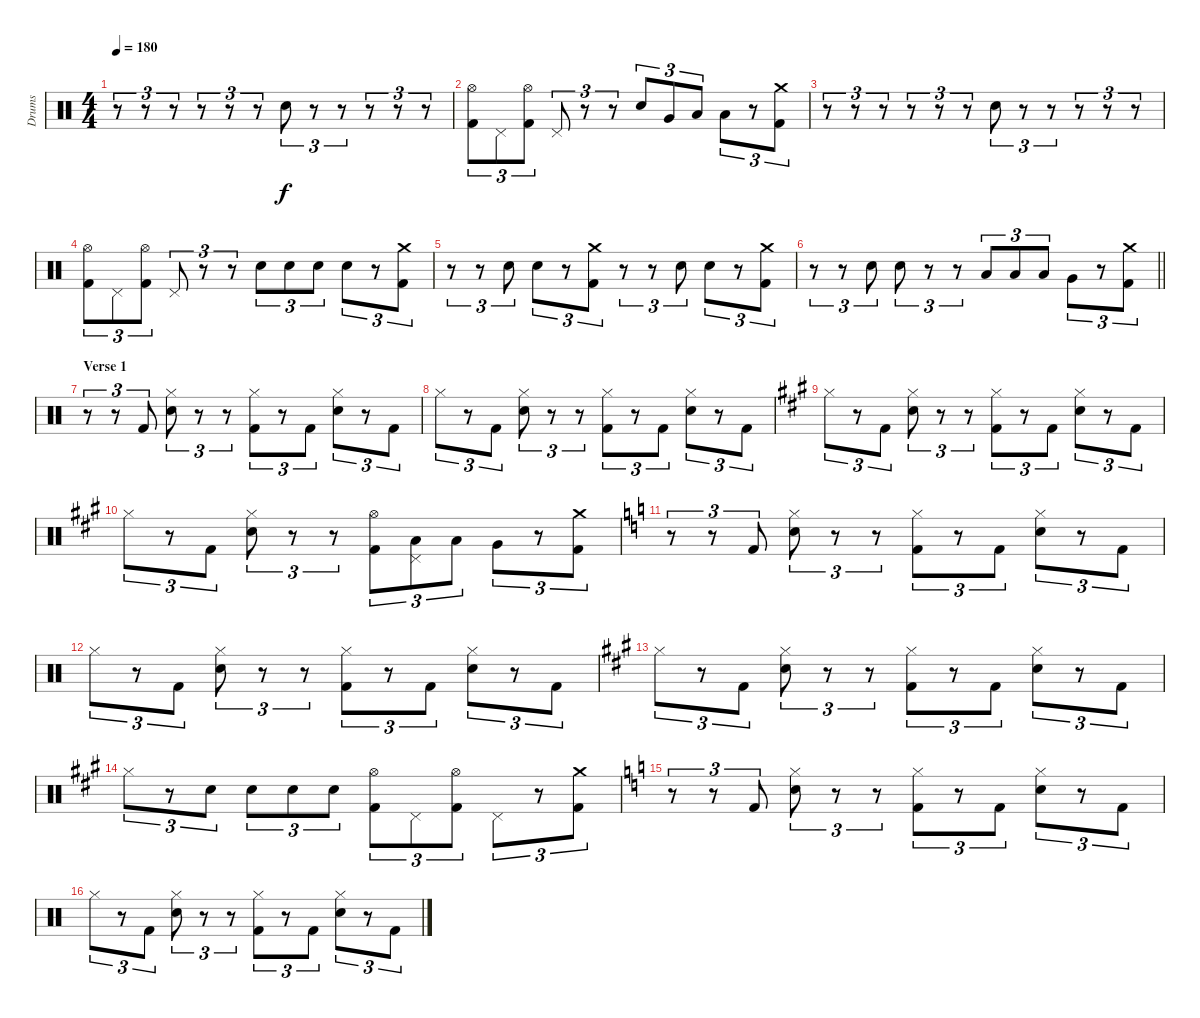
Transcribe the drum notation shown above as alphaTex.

\track ("Drums" "Drums") {instrument percussion}
\staff {score}
\articulation defaults
\ts (4 4)
\tempo 180
\clef neutral
\ks c
r.8{tu (3 2) dy f} r.8{tu (3 2)} r.8{tu (3 2)} r.8{tu (3 2)} r.8{tu (3 2)} r.8{tu (3 2)} "Snare (hit) 2".8{tu (3 2)} r.8{tu (3 2)} r.8{tu (3 2)} r.8{tu (3 2)} r.8{tu (3 2)} r.8{tu (3 2)} |
("Hi-Hat (open)" "Kick (hit) 2").8{tu (3 2)} "Pedal Hi-Hat (hit)".8{tu (3 2)} ("Hi-Hat (open)" "Kick (hit) 2").8{tu (3 2)} "Pedal Hi-Hat (hit)".8{tu (3 2)} r.8{tu (3 2)} r.8{tu (3 2)} "Snare (hit) 2".8{tu (3 2)} "Very Low Tom (hit)".8{tu (3 2)} "Low Tom (hit)".8{tu (3 2)} "Low Floor Tom (hit)".8{tu (3 2)} r.8{tu (3 2)} ("Crash medium (hit)" "Kick (hit) 2").8{tu (3 2)} |
r.8{tu (3 2)} r.8{tu (3 2)} r.8{tu (3 2)} r.8{tu (3 2)} r.8{tu (3 2)} r.8{tu (3 2)} "Snare (hit) 2".8{tu (3 2)} r.8{tu (3 2)} r.8{tu (3 2)} r.8{tu (3 2)} r.8{tu (3 2)} r.8{tu (3 2)} |
("Hi-Hat (open)" "Kick (hit) 2").8{tu (3 2)} "Pedal Hi-Hat (hit)".8{tu (3 2)} ("Hi-Hat (open)" "Kick (hit) 2").8{tu (3 2)} "Pedal Hi-Hat (hit)".8{tu (3 2)} r.8{tu (3 2)} r.8{tu (3 2)} "Snare (hit) 2".8{tu (3 2)} "Snare (hit) 2".8{tu (3 2)} "Snare (hit) 2".8{tu (3 2)} "Snare (hit) 2".8{tu (3 2)} r.8{tu (3 2)} ("Crash medium (hit)" "Kick (hit) 2").8{tu (3 2)} |
r.8{tu (3 2)} r.8{tu (3 2)} "Snare (hit) 2".8{tu (3 2)} "Snare (hit) 2".8{tu (3 2)} r.8{tu (3 2)} ("Crash medium (hit)" "Kick (hit) 2").8{tu (3 2)} r.8{tu (3 2)} r.8{tu (3 2)} "Snare (hit) 2".8{tu (3 2)} "Snare (hit) 2".8{tu (3 2)} r.8{tu (3 2)} ("Crash medium (hit)" "Kick (hit) 2").8{tu (3 2)} |
\barLineRight lightlight
r.8{tu (3 2)} r.8{tu (3 2)} "Snare (hit) 2".8{tu (3 2)} "Snare (hit) 2".8{tu (3 2)} r.8{tu (3 2)} r.8{tu (3 2)} "Low Tom (hit)".8{tu (3 2)} "Low Tom (hit)".8{tu (3 2)} "Low Tom (hit)".8{tu (3 2)} "Very Low Tom (hit)".8{tu (3 2)} r.8{tu (3 2)} ("Crash medium (hit)" "Kick (hit) 2").8{tu (3 2)} |
\section ("" "Verse 1")
r.8{tu (3 2)} r.8{tu (3 2)} "Kick (hit) 2".8{tu (3 2)} ("Hi-Hat (closed)" "Snare (hit) 2").8{tu (3 2)} r.8{tu (3 2)} r.8{tu (3 2)} ("Hi-Hat (closed)" "Kick (hit) 2").8{tu (3 2)} r.8{tu (3 2)} "Kick (hit) 2".8{tu (3 2)} ("Hi-Hat (closed)" "Snare (hit) 2").8{tu (3 2)} r.8{tu (3 2)} "Kick (hit) 2".8{tu (3 2)} |
"Hi-Hat (closed)".8{tu (3 2)} r.8{tu (3 2)} "Kick (hit) 2".8{tu (3 2)} ("Hi-Hat (closed)" "Snare (hit) 2").8{tu (3 2)} r.8{tu (3 2)} r.8{tu (3 2)} ("Hi-Hat (closed)" "Kick (hit) 2").8{tu (3 2)} r.8{tu (3 2)} "Kick (hit) 2".8{tu (3 2)} ("Hi-Hat (closed)" "Snare (hit) 2").8{tu (3 2)} r.8{tu (3 2)} "Kick (hit) 2".8{tu (3 2)} |
\ks a "Hi-Hat (closed)".8{tu (3 2)}
r.8{tu (3 2)} "Kick (hit) 2".8{tu (3 2)} ("Hi-Hat (closed)" "Snare (hit) 2").8{tu (3 2)} r.8{tu (3 2)} r.8{tu (3 2)} ("Hi-Hat (closed)" "Kick (hit) 2").8{tu (3 2)} r.8{tu (3 2)} "Kick (hit) 2".8{tu (3 2)} ("Hi-Hat (closed)" "Snare (hit) 2").8{tu (3 2)} r.8{tu (3 2)} "Kick (hit) 2".8{tu (3 2)} |
"Hi-Hat (closed)".8{tu (3 2)} r.8{tu (3 2)} "Kick (hit) 2".8{tu (3 2)} ("Hi-Hat (closed)" "Snare (hit) 2").8{tu (3 2)} r.8{tu (3 2)} r.8{tu (3 2)} ("Hi-Hat (open)" "Kick (hit) 2").8{tu (3 2)} ("Pedal Hi-Hat (hit)" "Low Tom (hit)").8{tu (3 2)} "Low Tom (hit)".8{tu (3 2)} "Very Low Tom (hit)".8{tu (3 2)} r.8{tu (3 2)} ("Crash medium (hit)" "Kick (hit) 2").8{tu (3 2)} |
\ks c
r.8{tu (3 2)} r.8{tu (3 2)} "Kick (hit) 2".8{tu (3 2)} ("Hi-Hat (closed)" "Snare (hit) 2").8{tu (3 2)} r.8{tu (3 2)} r.8{tu (3 2)} ("Hi-Hat (closed)" "Kick (hit) 2").8{tu (3 2)} r.8{tu (3 2)} "Kick (hit) 2".8{tu (3 2)} ("Hi-Hat (closed)" "Snare (hit) 2").8{tu (3 2)} r.8{tu (3 2)} "Kick (hit) 2".8{tu (3 2)} |
"Hi-Hat (closed)".8{tu (3 2)} r.8{tu (3 2)} "Kick (hit) 2".8{tu (3 2)} ("Hi-Hat (closed)" "Snare (hit) 2").8{tu (3 2)} r.8{tu (3 2)} r.8{tu (3 2)} ("Hi-Hat (closed)" "Kick (hit) 2").8{tu (3 2)} r.8{tu (3 2)} "Kick (hit) 2".8{tu (3 2)} ("Hi-Hat (closed)" "Snare (hit) 2").8{tu (3 2)} r.8{tu (3 2)} "Kick (hit) 2".8{tu (3 2)} |
\ks a "Hi-Hat (closed)".8{tu (3 2)}
r.8{tu (3 2)} "Kick (hit) 2".8{tu (3 2)} ("Hi-Hat (closed)" "Snare (hit) 2").8{tu (3 2)} r.8{tu (3 2)} r.8{tu (3 2)} ("Hi-Hat (closed)" "Kick (hit) 2").8{tu (3 2)} r.8{tu (3 2)} "Kick (hit) 2".8{tu (3 2)} ("Hi-Hat (closed)" "Snare (hit) 2").8{tu (3 2)} r.8{tu (3 2)} "Kick (hit) 2".8{tu (3 2)} |
"Hi-Hat (closed)".8{tu (3 2)} r.8{tu (3 2)} "Snare (hit) 2".8{tu (3 2)} "Snare (hit) 2".8{tu (3 2)} "Snare (hit) 2".8{tu (3 2)} "Snare (hit) 2".8{tu (3 2)} ("Hi-Hat (open)" "Kick (hit) 2").8{tu (3 2)} "Pedal Hi-Hat (hit)".8{tu (3 2)} ("Hi-Hat (open)" "Kick (hit) 2").8{tu (3 2)} "Pedal Hi-Hat (hit)".8{tu (3 2)} r.8{tu (3 2)} ("Crash medium (hit)" "Kick (hit) 2").8{tu (3 2)} |
\ks c
r.8{tu (3 2)} r.8{tu (3 2)} "Kick (hit) 2".8{tu (3 2)} ("Hi-Hat (closed)" "Snare (hit) 2").8{tu (3 2)} r.8{tu (3 2)} r.8{tu (3 2)} ("Hi-Hat (closed)" "Kick (hit) 2").8{tu (3 2)} r.8{tu (3 2)} "Kick (hit) 2".8{tu (3 2)} ("Hi-Hat (closed)" "Snare (hit) 2").8{tu (3 2)} r.8{tu (3 2)} "Kick (hit) 2".8{tu (3 2)} |
"Hi-Hat (closed)".8{tu (3 2)} r.8{tu (3 2)} "Kick (hit) 2".8{tu (3 2)} ("Hi-Hat (closed)" "Snare (hit) 2").8{tu (3 2)} r.8{tu (3 2)} r.8{tu (3 2)} ("Hi-Hat (closed)" "Kick (hit) 2").8{tu (3 2)} r.8{tu (3 2)} "Kick (hit) 2".8{tu (3 2)} ("Hi-Hat (closed)" "Snare (hit) 2").8{tu (3 2)} r.8{tu (3 2)} "Kick (hit) 2".8{tu (3 2)}
